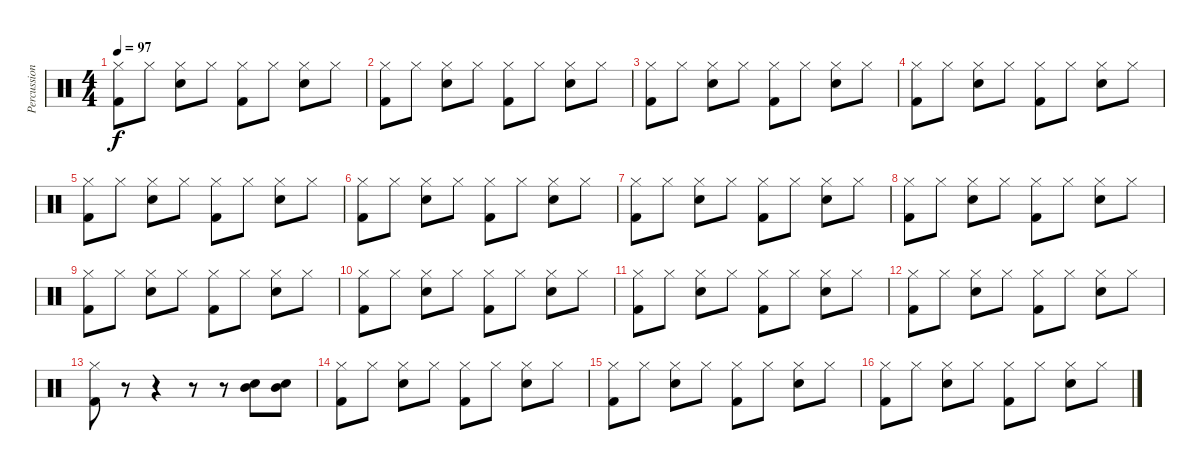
\track ("Percussion" "Percussion") {instrument percussion}
\staff {score}
\articulation defaults
\ts (4 4)
\tempo 97
\clef neutral
\ks c
("Hi-Hat (closed)" "Kick (hit) 2").8{dy f} "Hi-Hat (closed)".8 ("Hi-Hat (closed)" "Snare (hit) 2").8 "Hi-Hat (closed)".8 ("Hi-Hat (closed)" "Kick (hit) 2").8 "Hi-Hat (closed)".8 ("Hi-Hat (closed)" "Snare (hit) 2").8 "Hi-Hat (closed)".8 |
("Hi-Hat (closed)" "Kick (hit) 2").8 "Hi-Hat (closed)".8 ("Hi-Hat (closed)" "Snare (hit) 2").8 "Hi-Hat (closed)".8 ("Hi-Hat (closed)" "Kick (hit) 2").8 "Hi-Hat (closed)".8 ("Hi-Hat (closed)" "Snare (hit) 2").8 "Hi-Hat (closed)".8 |
("Hi-Hat (closed)" "Kick (hit) 2").8 "Hi-Hat (closed)".8 ("Hi-Hat (closed)" "Snare (hit) 2").8 "Hi-Hat (closed)".8 ("Hi-Hat (closed)" "Kick (hit) 2").8 "Hi-Hat (closed)".8 ("Hi-Hat (closed)" "Snare (hit) 2").8 "Hi-Hat (closed)".8 |
("Hi-Hat (closed)" "Kick (hit) 2").8 "Hi-Hat (closed)".8 ("Hi-Hat (closed)" "Snare (hit) 2").8 "Hi-Hat (closed)".8 ("Hi-Hat (closed)" "Kick (hit) 2").8 "Hi-Hat (closed)".8 ("Hi-Hat (closed)" "Snare (hit) 2").8 "Hi-Hat (closed)".8 |
("Hi-Hat (closed)" "Kick (hit) 2").8 "Hi-Hat (closed)".8 ("Hi-Hat (closed)" "Snare (hit) 2").8 "Hi-Hat (closed)".8 ("Hi-Hat (closed)" "Kick (hit) 2").8 "Hi-Hat (closed)".8 ("Hi-Hat (closed)" "Snare (hit) 2").8 "Hi-Hat (closed)".8 |
("Hi-Hat (closed)" "Kick (hit) 2").8 "Hi-Hat (closed)".8 ("Hi-Hat (closed)" "Snare (hit) 2").8 "Hi-Hat (closed)".8 ("Hi-Hat (closed)" "Kick (hit) 2").8 "Hi-Hat (closed)".8 ("Hi-Hat (closed)" "Snare (hit) 2").8 "Hi-Hat (closed)".8 |
("Hi-Hat (closed)" "Kick (hit) 2").8 "Hi-Hat (closed)".8 ("Hi-Hat (closed)" "Snare (hit) 2").8 "Hi-Hat (closed)".8 ("Hi-Hat (closed)" "Kick (hit) 2").8 "Hi-Hat (closed)".8 ("Hi-Hat (closed)" "Snare (hit) 2").8 "Hi-Hat (closed)".8 |
("Hi-Hat (closed)" "Kick (hit) 2").8 "Hi-Hat (closed)".8 ("Hi-Hat (closed)" "Snare (hit) 2").8 "Hi-Hat (closed)".8 ("Hi-Hat (closed)" "Kick (hit) 2").8 "Hi-Hat (closed)".8 ("Hi-Hat (closed)" "Snare (hit) 2").8 "Hi-Hat (closed)".8 |
("Hi-Hat (closed)" "Kick (hit) 2").8 "Hi-Hat (closed)".8 ("Hi-Hat (closed)" "Snare (hit) 2").8 "Hi-Hat (closed)".8 ("Hi-Hat (closed)" "Kick (hit) 2").8 "Hi-Hat (closed)".8 ("Hi-Hat (closed)" "Snare (hit) 2").8 "Hi-Hat (closed)".8 |
("Hi-Hat (closed)" "Kick (hit) 2").8 "Hi-Hat (closed)".8 ("Hi-Hat (closed)" "Snare (hit) 2").8 "Hi-Hat (closed)".8 ("Hi-Hat (closed)" "Kick (hit) 2").8 "Hi-Hat (closed)".8 ("Hi-Hat (closed)" "Snare (hit) 2").8 "Hi-Hat (closed)".8 |
("Hi-Hat (closed)" "Kick (hit) 2").8 "Hi-Hat (closed)".8 ("Hi-Hat (closed)" "Snare (hit) 2").8 "Hi-Hat (closed)".8 ("Hi-Hat (closed)" "Kick (hit) 2").8 "Hi-Hat (closed)".8 ("Hi-Hat (closed)" "Snare (hit) 2").8 "Hi-Hat (closed)".8 |
("Hi-Hat (closed)" "Kick (hit) 2").8 "Hi-Hat (closed)".8 ("Hi-Hat (closed)" "Snare (hit) 2").8 "Hi-Hat (closed)".8 ("Hi-Hat (closed)" "Kick (hit) 2").8 "Hi-Hat (closed)".8 ("Hi-Hat (closed)" "Snare (hit) 2").8 "Hi-Hat (closed)".8 |
("Hi-Hat (closed)" "Kick (hit) 2").8 r.8 r.4 r.8 r.8 ("Snare (hit) 2" "Mid Tom (hit)").8 ("Snare (hit) 2" "Mid Tom (hit)").8 |
("Hi-Hat (closed)" "Kick (hit) 2").8 "Hi-Hat (closed)".8 ("Hi-Hat (closed)" "Snare (hit) 2").8 "Hi-Hat (closed)".8 ("Hi-Hat (closed)" "Kick (hit) 2").8 "Hi-Hat (closed)".8 ("Hi-Hat (closed)" "Snare (hit) 2").8 "Hi-Hat (closed)".8 |
("Hi-Hat (closed)" "Kick (hit) 2").8 "Hi-Hat (closed)".8 ("Hi-Hat (closed)" "Snare (hit) 2").8 "Hi-Hat (closed)".8 ("Hi-Hat (closed)" "Kick (hit) 2").8 "Hi-Hat (closed)".8 ("Hi-Hat (closed)" "Snare (hit) 2").8 "Hi-Hat (closed)".8 |
("Hi-Hat (closed)" "Kick (hit) 2").8 "Hi-Hat (closed)".8 ("Hi-Hat (closed)" "Snare (hit) 2").8 "Hi-Hat (closed)".8 ("Hi-Hat (closed)" "Kick (hit) 2").8 "Hi-Hat (closed)".8 ("Hi-Hat (closed)" "Snare (hit) 2").8 "Hi-Hat (closed)".8
